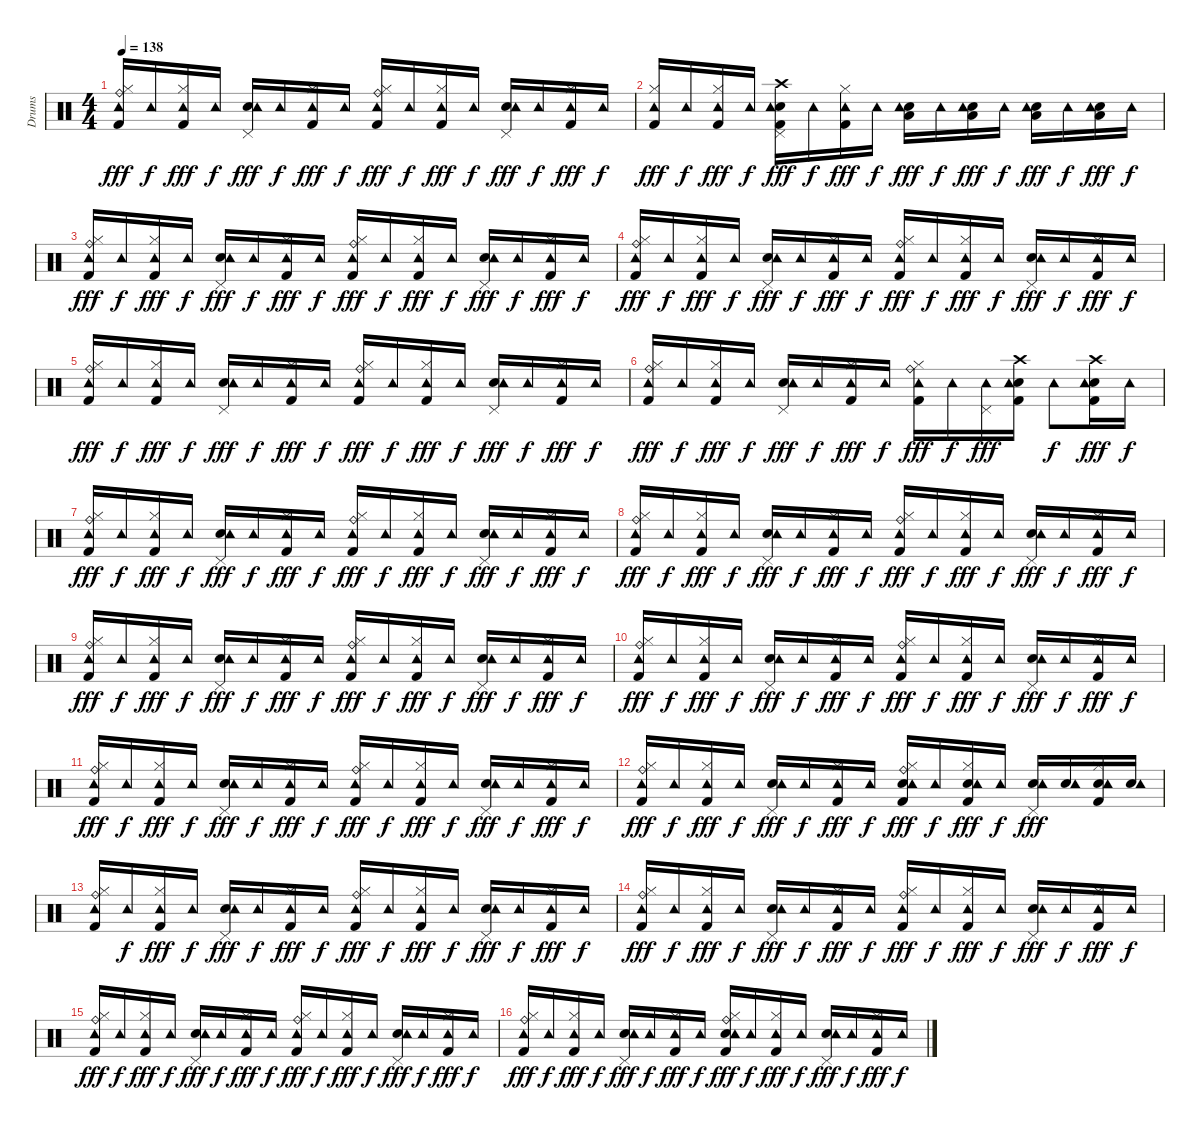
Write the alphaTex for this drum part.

\track ("Drums" "Drums") {instrument percussion}
\staff {score}
\articulation defaults
\ts (4 4)
\tempo 138
\clef neutral
\ks c
("Kick (hit) 2" "Hi-Hat (closed)" "Ride (bell)" "Tambourine (hit)").16{dy fff} "Tambourine (hit)".16{dy f} ("Kick (hit) 2" "Hi-Hat (closed)" "Tambourine (hit)").16{dy fff} "Tambourine (hit)".16{dy f} ("Snare (hit) 2" "Pedal Hi-Hat (hit)" "Tambourine (hit)").16{dy fff} "Tambourine (hit)".16{dy f} ("Kick (hit) 2" "Hi-Hat (closed)" "Tambourine (hit)").16{dy fff} "Tambourine (hit)".16{dy f} ("Kick (hit) 2" "Hi-Hat (closed)" "Ride (bell)" "Tambourine (hit)").16{dy fff} "Tambourine (hit)".16{dy f} ("Kick (hit) 2" "Hi-Hat (closed)" "Tambourine (hit)").16{dy fff} "Tambourine (hit)".16{dy f} ("Snare (hit) 2" "Pedal Hi-Hat (hit)" "Tambourine (hit)").16{dy fff} "Tambourine (hit)".16{dy f} ("Kick (hit) 2" "Hi-Hat (closed)" "Tambourine (hit)").16{dy fff} "Tambourine (hit)".16{dy f} |
("Kick (hit) 2" "Hi-Hat (closed)" "Tambourine (hit)").16{dy fff} "Tambourine (hit)".16{dy f} ("Kick (hit) 2" "Hi-Hat (closed)" "Tambourine (hit)").16{dy fff} "Tambourine (hit)".16{dy f} ("Kick (hit) 2" "Snare (hit) 2" "Pedal Hi-Hat (hit)" "Crash high (hit)" "Tambourine (hit)").16{dy fff} "Tambourine (hit)".16{dy f} ("Kick (hit) 2" "Hi-Hat (closed)" "Tambourine (hit)").16{dy fff} "Tambourine (hit)".16{dy f} ("Snare (hit) 2" "Low Floor Tom (hit)" "Tambourine (hit)").16{dy fff} "Tambourine (hit)".16{dy f} ("Snare (hit) 2" "Low Floor Tom (hit)" "Tambourine (hit)").16{dy fff} "Tambourine (hit)".16{dy f} ("Snare (hit) 2" "Low Floor Tom (hit)" "Tambourine (hit)").16{dy fff} "Tambourine (hit)".16{dy f} ("Snare (hit) 2" "Low Floor Tom (hit)" "Tambourine (hit)").16{dy fff} "Tambourine (hit)".16{dy f} |
("Kick (hit) 2" "Hi-Hat (closed)" "Ride (bell)" "Tambourine (hit)").16{dy fff} "Tambourine (hit)".16{dy f} ("Kick (hit) 2" "Hi-Hat (closed)" "Tambourine (hit)").16{dy fff} "Tambourine (hit)".16{dy f} ("Snare (hit) 2" "Pedal Hi-Hat (hit)" "Tambourine (hit)").16{dy fff} "Tambourine (hit)".16{dy f} ("Kick (hit) 2" "Hi-Hat (closed)" "Tambourine (hit)").16{dy fff} "Tambourine (hit)".16{dy f} ("Kick (hit) 2" "Hi-Hat (closed)" "Ride (bell)" "Tambourine (hit)").16{dy fff} "Tambourine (hit)".16{dy f} ("Kick (hit) 2" "Hi-Hat (closed)" "Tambourine (hit)").16{dy fff} "Tambourine (hit)".16{dy f} ("Snare (hit) 2" "Pedal Hi-Hat (hit)" "Tambourine (hit)").16{dy fff} "Tambourine (hit)".16{dy f} ("Kick (hit) 2" "Hi-Hat (closed)" "Tambourine (hit)").16{dy fff} "Tambourine (hit)".16{dy f} |
("Kick (hit) 2" "Hi-Hat (closed)" "Ride (bell)" "Tambourine (hit)").16{dy fff} "Tambourine (hit)".16{dy f} ("Kick (hit) 2" "Hi-Hat (closed)" "Tambourine (hit)").16{dy fff} "Tambourine (hit)".16{dy f} ("Snare (hit) 2" "Pedal Hi-Hat (hit)" "Tambourine (hit)").16{dy fff} "Tambourine (hit)".16{dy f} ("Kick (hit) 2" "Hi-Hat (closed)" "Tambourine (hit)").16{dy fff} "Tambourine (hit)".16{dy f} ("Kick (hit) 2" "Hi-Hat (closed)" "Ride (bell)" "Tambourine (hit)").16{dy fff} "Tambourine (hit)".16{dy f} ("Kick (hit) 2" "Hi-Hat (closed)" "Tambourine (hit)").16{dy fff} "Tambourine (hit)".16{dy f} ("Snare (hit) 2" "Pedal Hi-Hat (hit)" "Tambourine (hit)").16{dy fff} "Tambourine (hit)".16{dy f} ("Kick (hit) 2" "Hi-Hat (closed)" "Tambourine (hit)").16{dy fff} "Tambourine (hit)".16{dy f} |
("Kick (hit) 2" "Hi-Hat (closed)" "Ride (bell)" "Tambourine (hit)").16{dy fff} "Tambourine (hit)".16{dy f} ("Kick (hit) 2" "Hi-Hat (closed)" "Tambourine (hit)").16{dy fff} "Tambourine (hit)".16{dy f} ("Snare (hit) 2" "Pedal Hi-Hat (hit)" "Tambourine (hit)").16{dy fff} "Tambourine (hit)".16{dy f} ("Kick (hit) 2" "Hi-Hat (closed)" "Tambourine (hit)").16{dy fff} "Tambourine (hit)".16{dy f} ("Kick (hit) 2" "Hi-Hat (closed)" "Ride (bell)" "Tambourine (hit)").16{dy fff} "Tambourine (hit)".16{dy f} ("Kick (hit) 2" "Hi-Hat (closed)" "Tambourine (hit)").16{dy fff} "Tambourine (hit)".16{dy f} ("Snare (hit) 2" "Pedal Hi-Hat (hit)" "Tambourine (hit)").16{dy fff} "Tambourine (hit)".16{dy f} ("Kick (hit) 2" "Hi-Hat (closed)" "Tambourine (hit)").16{dy fff} "Tambourine (hit)".16{dy f} |
("Kick (hit) 2" "Hi-Hat (closed)" "Ride (bell)" "Tambourine (hit)").16{dy fff} "Tambourine (hit)".16{dy f} ("Kick (hit) 2" "Hi-Hat (closed)" "Tambourine (hit)").16{dy fff} "Tambourine (hit)".16{dy f} ("Snare (hit) 2" "Pedal Hi-Hat (hit)" "Tambourine (hit)").16{dy fff} "Tambourine (hit)".16{dy f} ("Kick (hit) 2" "Hi-Hat (closed)" "Tambourine (hit)").16{dy fff} "Tambourine (hit)".16{dy f} ("Kick (hit) 2" "Hi-Hat (closed)" "Ride (bell)" "Tambourine (hit)").16{dy fff} "Tambourine (hit)".16{dy f} ("Pedal Hi-Hat (hit)" "Tambourine (hit)").16{dy fff} ("Kick (hit) 2" "Snare (hit) 2" "Crash high (hit)" "Tambourine (hit)").16 "Tambourine (hit)".8{dy f} ("Kick (hit) 2" "Snare (hit) 2" "Crash high (hit)" "Tambourine (hit)").16{dy fff} "Tambourine (hit)".16{dy f} |
("Kick (hit) 2" "Hi-Hat (closed)" "Ride (bell)" "Tambourine (hit)").16{dy fff} "Tambourine (hit)".16{dy f} ("Kick (hit) 2" "Hi-Hat (closed)" "Tambourine (hit)").16{dy fff} "Tambourine (hit)".16{dy f} ("Snare (hit) 2" "Pedal Hi-Hat (hit)" "Tambourine (hit)").16{dy fff} "Tambourine (hit)".16{dy f} ("Kick (hit) 2" "Hi-Hat (closed)" "Tambourine (hit)").16{dy fff} "Tambourine (hit)".16{dy f} ("Kick (hit) 2" "Hi-Hat (closed)" "Ride (bell)" "Tambourine (hit)").16{dy fff} "Tambourine (hit)".16{dy f} ("Kick (hit) 2" "Hi-Hat (closed)" "Tambourine (hit)").16{dy fff} "Tambourine (hit)".16{dy f} ("Snare (hit) 2" "Pedal Hi-Hat (hit)" "Tambourine (hit)").16{dy fff} "Tambourine (hit)".16{dy f} ("Kick (hit) 2" "Hi-Hat (closed)" "Tambourine (hit)").16{dy fff} "Tambourine (hit)".16{dy f} |
("Kick (hit) 2" "Hi-Hat (closed)" "Ride (bell)" "Tambourine (hit)").16{dy fff} "Tambourine (hit)".16{dy f} ("Kick (hit) 2" "Hi-Hat (closed)" "Tambourine (hit)").16{dy fff} "Tambourine (hit)".16{dy f} ("Snare (hit) 2" "Pedal Hi-Hat (hit)" "Tambourine (hit)").16{dy fff} "Tambourine (hit)".16{dy f} ("Kick (hit) 2" "Hi-Hat (closed)" "Tambourine (hit)").16{dy fff} "Tambourine (hit)".16{dy f} ("Kick (hit) 2" "Hi-Hat (closed)" "Ride (bell)" "Tambourine (hit)").16{dy fff} "Tambourine (hit)".16{dy f} ("Kick (hit) 2" "Hi-Hat (closed)" "Tambourine (hit)").16{dy fff} "Tambourine (hit)".16{dy f} ("Snare (hit) 2" "Pedal Hi-Hat (hit)" "Tambourine (hit)").16{dy fff} "Tambourine (hit)".16{dy f} ("Kick (hit) 2" "Hi-Hat (closed)" "Tambourine (hit)").16{dy fff} "Tambourine (hit)".16{dy f} |
("Kick (hit) 2" "Hi-Hat (closed)" "Ride (bell)" "Tambourine (hit)").16{dy fff} "Tambourine (hit)".16{dy f} ("Kick (hit) 2" "Hi-Hat (closed)" "Tambourine (hit)").16{dy fff} "Tambourine (hit)".16{dy f} ("Snare (hit) 2" "Pedal Hi-Hat (hit)" "Tambourine (hit)").16{dy fff} "Tambourine (hit)".16{dy f} ("Kick (hit) 2" "Hi-Hat (closed)" "Tambourine (hit)").16{dy fff} "Tambourine (hit)".16{dy f} ("Kick (hit) 2" "Hi-Hat (closed)" "Ride (bell)" "Tambourine (hit)").16{dy fff} "Tambourine (hit)".16{dy f} ("Kick (hit) 2" "Hi-Hat (closed)" "Tambourine (hit)").16{dy fff} "Tambourine (hit)".16{dy f} ("Snare (hit) 2" "Pedal Hi-Hat (hit)" "Tambourine (hit)").16{dy fff} "Tambourine (hit)".16{dy f} ("Kick (hit) 2" "Hi-Hat (closed)" "Tambourine (hit)").16{dy fff} "Tambourine (hit)".16{dy f} |
("Kick (hit) 2" "Hi-Hat (closed)" "Ride (bell)" "Tambourine (hit)").16{dy fff} "Tambourine (hit)".16{dy f} ("Kick (hit) 2" "Hi-Hat (closed)" "Tambourine (hit)").16{dy fff} "Tambourine (hit)".16{dy f} ("Snare (hit) 2" "Pedal Hi-Hat (hit)" "Tambourine (hit)").16{dy fff} "Tambourine (hit)".16{dy f} ("Kick (hit) 2" "Hi-Hat (closed)" "Tambourine (hit)").16{dy fff} "Tambourine (hit)".16{dy f} ("Kick (hit) 2" "Hi-Hat (closed)" "Ride (bell)" "Tambourine (hit)").16{dy fff} "Tambourine (hit)".16{dy f} ("Kick (hit) 2" "Hi-Hat (closed)" "Tambourine (hit)").16{dy fff} "Tambourine (hit)".16{dy f} ("Snare (hit) 2" "Pedal Hi-Hat (hit)" "Tambourine (hit)").16{dy fff} "Tambourine (hit)".16{dy f} ("Kick (hit) 2" "Hi-Hat (closed)" "Tambourine (hit)").16{dy fff} "Tambourine (hit)".16{dy f} |
("Kick (hit) 2" "Hi-Hat (closed)" "Ride (bell)" "Tambourine (hit)").16{dy fff} "Tambourine (hit)".16{dy f} ("Kick (hit) 2" "Hi-Hat (closed)" "Tambourine (hit)").16{dy fff} "Tambourine (hit)".16{dy f} ("Snare (hit) 2" "Pedal Hi-Hat (hit)" "Tambourine (hit)").16{dy fff} "Tambourine (hit)".16{dy f} ("Kick (hit) 2" "Hi-Hat (closed)" "Tambourine (hit)").16{dy fff} "Tambourine (hit)".16{dy f} ("Kick (hit) 2" "Hi-Hat (closed)" "Ride (bell)" "Tambourine (hit)").16{dy fff} "Tambourine (hit)".16{dy f} ("Kick (hit) 2" "Hi-Hat (closed)" "Tambourine (hit)").16{dy fff} "Tambourine (hit)".16{dy f} ("Snare (hit) 2" "Pedal Hi-Hat (hit)" "Tambourine (hit)").16{dy fff} "Tambourine (hit)".16{dy f} ("Kick (hit) 2" "Hi-Hat (closed)" "Tambourine (hit)").16{dy fff} "Tambourine (hit)".16{dy f} |
("Kick (hit) 2" "Hi-Hat (closed)" "Ride (bell)" "Tambourine (hit)").16{dy fff} "Tambourine (hit)".16{dy f} ("Kick (hit) 2" "Hi-Hat (closed)" "Tambourine (hit)").16{dy fff} "Tambourine (hit)".16{dy f} ("Snare (hit) 2" "Pedal Hi-Hat (hit)" "Tambourine (hit)").16{dy fff} "Tambourine (hit)".16{dy f} ("Kick (hit) 2" "Hi-Hat (closed)" "Tambourine (hit)").16{dy fff} "Tambourine (hit)".16{dy f} ("Kick (hit) 2" "Snare (hit) 2" "Hi-Hat (closed)" "Ride (bell)" "Tambourine (hit)").16{dy fff} "Tambourine (hit)".16{dy f} ("Kick (hit) 2" "Snare (hit) 2" "Hi-Hat (closed)" "Tambourine (hit)").16{dy fff} "Tambourine (hit)".16{dy f} ("Snare (hit) 2" "Pedal Hi-Hat (hit)" "Tambourine (hit)").16{dy fff} ("Snare (hit) 2" "Tambourine (hit)").16 ("Kick (hit) 2" "Snare (hit) 2" "Hi-Hat (closed)" "Tambourine (hit)").16 ("Snare (hit) 2" "Tambourine (hit)").16 |
("Kick (hit) 2" "Hi-Hat (closed)" "Ride (bell)" "Tambourine (hit)").16 "Tambourine (hit)".16{dy f} ("Kick (hit) 2" "Hi-Hat (closed)" "Tambourine (hit)").16{dy fff} "Tambourine (hit)".16{dy f} ("Snare (hit) 2" "Pedal Hi-Hat (hit)" "Tambourine (hit)").16{dy fff} "Tambourine (hit)".16{dy f} ("Kick (hit) 2" "Hi-Hat (closed)" "Tambourine (hit)").16{dy fff} "Tambourine (hit)".16{dy f} ("Kick (hit) 2" "Hi-Hat (closed)" "Ride (bell)" "Tambourine (hit)").16{dy fff} "Tambourine (hit)".16{dy f} ("Kick (hit) 2" "Hi-Hat (closed)" "Tambourine (hit)").16{dy fff} "Tambourine (hit)".16{dy f} ("Snare (hit) 2" "Pedal Hi-Hat (hit)" "Tambourine (hit)").16{dy fff} "Tambourine (hit)".16{dy f} ("Kick (hit) 2" "Hi-Hat (closed)" "Tambourine (hit)").16{dy fff} "Tambourine (hit)".16{dy f} |
("Kick (hit) 2" "Hi-Hat (closed)" "Ride (bell)" "Tambourine (hit)").16{dy fff} "Tambourine (hit)".16{dy f} ("Kick (hit) 2" "Hi-Hat (closed)" "Tambourine (hit)").16{dy fff} "Tambourine (hit)".16{dy f} ("Snare (hit) 2" "Pedal Hi-Hat (hit)" "Tambourine (hit)").16{dy fff} "Tambourine (hit)".16{dy f} ("Kick (hit) 2" "Hi-Hat (closed)" "Tambourine (hit)").16{dy fff} "Tambourine (hit)".16{dy f} ("Kick (hit) 2" "Hi-Hat (closed)" "Ride (bell)" "Tambourine (hit)").16{dy fff} "Tambourine (hit)".16{dy f} ("Kick (hit) 2" "Hi-Hat (closed)" "Tambourine (hit)").16{dy fff} "Tambourine (hit)".16{dy f} ("Snare (hit) 2" "Pedal Hi-Hat (hit)" "Tambourine (hit)").16{dy fff} "Tambourine (hit)".16{dy f} ("Kick (hit) 2" "Hi-Hat (closed)" "Tambourine (hit)").16{dy fff} "Tambourine (hit)".16{dy f} |
("Kick (hit) 2" "Hi-Hat (closed)" "Ride (bell)" "Tambourine (hit)").16{dy fff} "Tambourine (hit)".16{dy f} ("Kick (hit) 2" "Hi-Hat (closed)" "Tambourine (hit)").16{dy fff} "Tambourine (hit)".16{dy f} ("Snare (hit) 2" "Pedal Hi-Hat (hit)" "Tambourine (hit)").16{dy fff} "Tambourine (hit)".16{dy f} ("Kick (hit) 2" "Hi-Hat (closed)" "Tambourine (hit)").16{dy fff} "Tambourine (hit)".16{dy f} ("Kick (hit) 2" "Hi-Hat (closed)" "Ride (bell)" "Tambourine (hit)").16{dy fff} "Tambourine (hit)".16{dy f} ("Kick (hit) 2" "Hi-Hat (closed)" "Tambourine (hit)").16{dy fff} "Tambourine (hit)".16{dy f} ("Snare (hit) 2" "Pedal Hi-Hat (hit)" "Tambourine (hit)").16{dy fff} "Tambourine (hit)".16{dy f} ("Kick (hit) 2" "Hi-Hat (closed)" "Tambourine (hit)").16{dy fff} "Tambourine (hit)".16{dy f} |
("Kick (hit) 2" "Hi-Hat (closed)" "Ride (bell)" "Tambourine (hit)").16{dy fff} "Tambourine (hit)".16{dy f} ("Kick (hit) 2" "Hi-Hat (closed)" "Tambourine (hit)").16{dy fff} "Tambourine (hit)".16{dy f} ("Snare (hit) 2" "Pedal Hi-Hat (hit)" "Tambourine (hit)").16{dy fff} "Tambourine (hit)".16{dy f} ("Kick (hit) 2" "Hi-Hat (closed)" "Tambourine (hit)").16{dy fff} "Tambourine (hit)".16{dy f} ("Kick (hit) 2" "Snare (hit) 2" "Hi-Hat (closed)" "Ride (bell)" "Tambourine (hit)").16{dy fff} "Tambourine (hit)".16{dy f} ("Kick (hit) 2" "Hi-Hat (closed)" "Tambourine (hit)").16{dy fff} "Tambourine (hit)".16{dy f} ("Snare (hit) 2" "Pedal Hi-Hat (hit)" "Tambourine (hit)").16{dy fff} "Tambourine (hit)".16{dy f} ("Kick (hit) 2" "Hi-Hat (closed)" "Tambourine (hit)").16{dy fff} "Tambourine (hit)".16{dy f}
